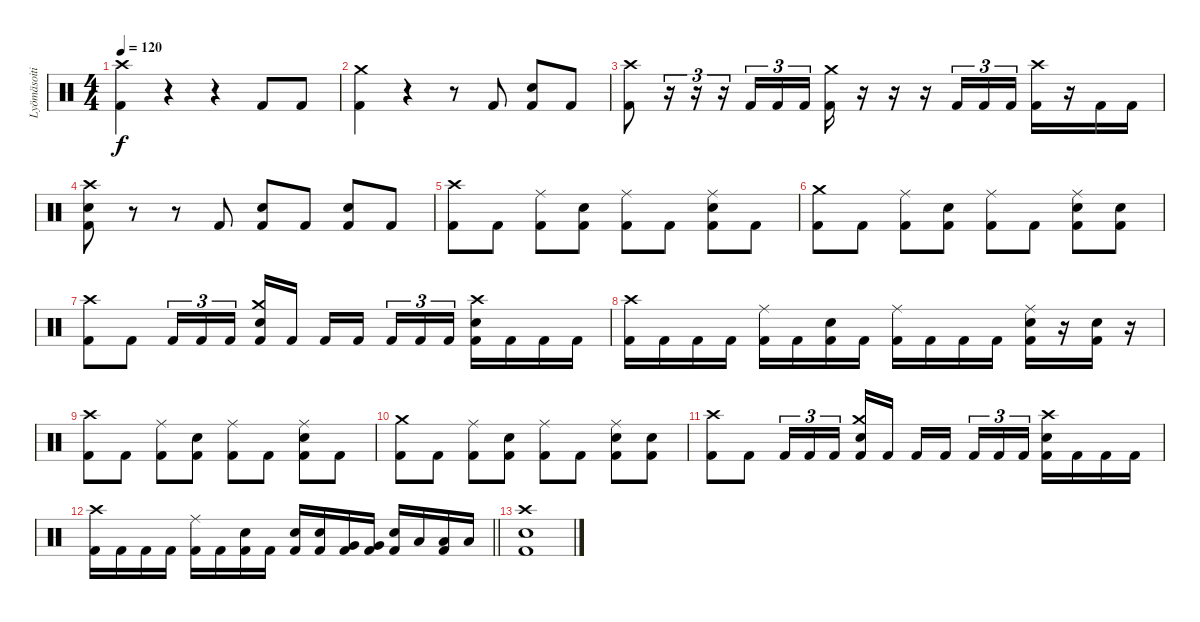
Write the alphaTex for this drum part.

\track ("Lyömäsoitin" "Lyömäsoiti") {instrument percussion}
\staff {score}
\articulation defaults
\ts (4 4)
\tempo 120
\clef neutral
\ks c
("Crash high (hit)" "Kick (hit) 2").4{dy f} r.4 r.4 "Kick (hit) 2".8 "Kick (hit) 2".8 |
("Crash medium (hit)" "Kick (hit) 2").4 r.4 r.8 "Kick (hit) 2".8 ("Electric Snare (hit)" "Kick (hit) 2").8 "Kick (hit) 2".8 |
("Crash high (hit)" "Kick (hit) 2").8 r.16{tu (3 2)} r.16{tu (3 2)} r.16{tu (3 2)} "Kick (hit) 2".16{tu (3 2)} "Kick (hit) 2".16{tu (3 2)} "Kick (hit) 2".16{tu (3 2) beam splitsecondary} ("Crash medium (hit)" "Kick (hit) 2").16 r.16 r.16 r.16 "Kick (hit) 2".16{tu (3 2)} "Kick (hit) 2".16{tu (3 2)} "Kick (hit) 2".16{tu (3 2)} ("Crash high (hit)" "Kick (hit) 2").16 r.16 "Kick (hit) 2".16 "Kick (hit) 2".16 |
("Crash high (hit)" "Electric Snare (hit)" "Kick (hit) 2").8 r.8 r.8 "Kick (hit) 2".8 ("Electric Snare (hit)" "Kick (hit) 2").8 "Kick (hit) 2".8 ("Electric Snare (hit)" "Kick (hit) 2").8 "Kick (hit) 2".8 |
("Crash high (hit)" "Kick (hit) 2").8 "Kick (hit) 2".8 ("Ride (middle)" "Kick (hit) 2").8 ("Electric Snare (hit)" "Kick (hit) 2").8 ("Ride (middle)" "Kick (hit) 2").8 "Kick (hit) 2".8 ("Ride (middle)" "Electric Snare (hit)" "Kick (hit) 2").8 "Kick (hit) 2".8 |
("Crash medium (hit)" "Kick (hit) 2").8 "Kick (hit) 2".8 ("Ride (middle)" "Kick (hit) 2").8 ("Electric Snare (hit)" "Kick (hit) 2").8 ("Ride (middle)" "Kick (hit) 2").8 "Kick (hit) 2".8 ("Ride (middle)" "Electric Snare (hit)" "Kick (hit) 2").8 ("Electric Snare (hit)" "Kick (hit) 2").8 |
("Crash high (hit)" "Kick (hit) 2").8 "Kick (hit) 2".8 "Kick (hit) 2".16{tu (3 2)} "Kick (hit) 2".16{tu (3 2)} "Kick (hit) 2".16{tu (3 2) beam splitsecondary} ("Crash medium (hit)" "Electric Snare (hit)" "Kick (hit) 2").16 "Kick (hit) 2".16 "Kick (hit) 2".16 "Kick (hit) 2".16{beam splitsecondary} "Kick (hit) 2".16{tu (3 2)} "Kick (hit) 2".16{tu (3 2)} "Kick (hit) 2".16{tu (3 2)} ("Crash high (hit)" "Electric Snare (hit)" "Kick (hit) 2").16 "Kick (hit) 2".16 "Kick (hit) 2".16 "Kick (hit) 2".16 |
("Crash high (hit)" "Kick (hit) 2").16 "Kick (hit) 2".16 "Kick (hit) 2".16 "Kick (hit) 2".16 ("Ride (middle)" "Kick (hit) 2").16 "Kick (hit) 2".16 ("Electric Snare (hit)" "Kick (hit) 2").16 "Kick (hit) 2".16 ("Ride (middle)" "Kick (hit) 2").16 "Kick (hit) 2".16 "Kick (hit) 2".16 "Kick (hit) 2".16 ("Ride (middle)" "Electric Snare (hit)" "Kick (hit) 2").16 r.16 ("Electric Snare (hit)" "Kick (hit) 2").16 r.16 |
("Crash high (hit)" "Kick (hit) 2").8 "Kick (hit) 2".8 ("Ride (middle)" "Kick (hit) 2").8 ("Electric Snare (hit)" "Kick (hit) 2").8 ("Ride (middle)" "Kick (hit) 2").8 "Kick (hit) 2".8 ("Ride (middle)" "Electric Snare (hit)" "Kick (hit) 2").8 "Kick (hit) 2".8 |
("Crash medium (hit)" "Kick (hit) 2").8 "Kick (hit) 2".8 ("Ride (middle)" "Kick (hit) 2").8 ("Electric Snare (hit)" "Kick (hit) 2").8 ("Ride (middle)" "Kick (hit) 2").8 "Kick (hit) 2".8 ("Ride (middle)" "Electric Snare (hit)" "Kick (hit) 2").8 ("Electric Snare (hit)" "Kick (hit) 2").8 |
("Crash high (hit)" "Kick (hit) 2").8 "Kick (hit) 2".8 "Kick (hit) 2".16{tu (3 2)} "Kick (hit) 2".16{tu (3 2)} "Kick (hit) 2".16{tu (3 2) beam splitsecondary} ("Crash medium (hit)" "Electric Snare (hit)" "Kick (hit) 2").16 "Kick (hit) 2".16 "Kick (hit) 2".16 "Kick (hit) 2".16{beam splitsecondary} "Kick (hit) 2".16{tu (3 2)} "Kick (hit) 2".16{tu (3 2)} "Kick (hit) 2".16{tu (3 2)} ("Crash high (hit)" "Electric Snare (hit)" "Kick (hit) 2").16 "Kick (hit) 2".16 "Kick (hit) 2".16 "Kick (hit) 2".16 |
\barLineRight lightlight
("Crash high (hit)" "Kick (hit) 2").16 "Kick (hit) 2".16 "Kick (hit) 2".16 "Kick (hit) 2".16 ("Ride (middle)" "Kick (hit) 2").16 "Kick (hit) 2".16 ("Electric Snare (hit)" "Kick (hit) 2").16 "Kick (hit) 2".16 ("Electric Snare (hit)" "Kick (hit) 2").16 ("Electric Snare (hit)" "Kick (hit) 2").16 ("Very Low Tom (hit)" "Kick (hit) 2").16 ("Very Low Tom (hit)" "Kick (hit) 2").16 ("Electric Snare (hit)" "Kick (hit) 2").16 "Low Tom (hit)".16 ("Low Tom (hit)" "Kick (hit) 2").16 "Low Tom (hit)".16 |
("Crash high (hit)" "Electric Snare (hit)" "Kick (hit) 2").1
